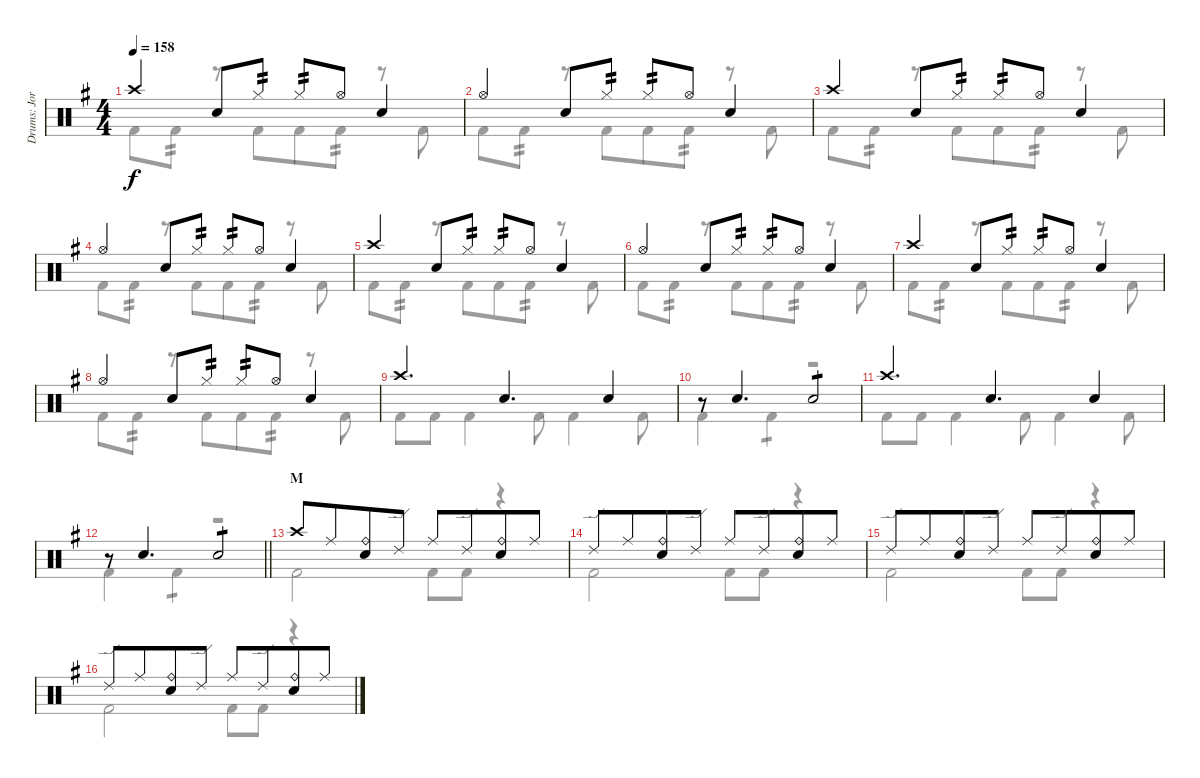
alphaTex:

\track ("Drums: Jorg" "Drums: Jor") {instrument percussion}
\staff {score}
\articulation defaults
\voice
\ts (4 4)
\tempo 158
\clef neutral
\ks g "Crash high (hit)".4{dy f} "Snare (hit) 2".8 "Hi-Hat (closed)".8{tp 2} "Hi-Hat (closed)".8{tp 2} "Hi-Hat (open)".8 "Snare (hit) 2".4
|
"Hi-Hat (open)".4 "Snare (hit) 2".8 "Hi-Hat (closed)".8{tp 2} "Hi-Hat (closed)".8{tp 2} "Hi-Hat (open)".8 "Snare (hit) 2".4 |
"Crash high (hit)".4 "Snare (hit) 2".8 "Hi-Hat (closed)".8{tp 2} "Hi-Hat (closed)".8{tp 2} "Hi-Hat (open)".8 "Snare (hit) 2".4 |
"Hi-Hat (open)".4 "Snare (hit) 2".8 "Hi-Hat (closed)".8{tp 2} "Hi-Hat (closed)".8{tp 2} "Hi-Hat (open)".8 "Snare (hit) 2".4 |
"Crash high (hit)".4 "Snare (hit) 2".8 "Hi-Hat (closed)".8{tp 2} "Hi-Hat (closed)".8{tp 2} "Hi-Hat (open)".8 "Snare (hit) 2".4 |
"Hi-Hat (open)".4 "Snare (hit) 2".8 "Hi-Hat (closed)".8{tp 2} "Hi-Hat (closed)".8{tp 2} "Hi-Hat (open)".8 "Snare (hit) 2".4 |
"Crash high (hit)".4 "Snare (hit) 2".8 "Hi-Hat (closed)".8{tp 2} "Hi-Hat (closed)".8{tp 2} "Hi-Hat (open)".8 "Snare (hit) 2".4 |
"Hi-Hat (open)".4 "Snare (hit) 2".8 "Hi-Hat (closed)".8{tp 2} "Hi-Hat (closed)".8{tp 2} "Hi-Hat (open)".8 "Snare (hit) 2".4 |
"Crash high (hit)".4{d} "Snare (hit) 2".4{d} "Snare (hit) 2".4 |
r.8 "Snare (hit) 2".4{d} "Snare (hit) 2".2{tp 1} |
"Crash high (hit)".4{d} "Snare (hit) 2".4{d} "Snare (hit) 2".4 |
\barLineRight lightlight
r.8 "Snare (hit) 2".4{d} "Snare (hit) 2".2{tp 1} |
\section ("" "M")
"Crash high (hit)".8 "Ride (middle)".8{beam merge} ("Ride (bell)" "Snare (hit) 2").8 "Ride (edge) 2".8 "Ride (middle)".8 "Ride (edge) 2".8{beam merge} ("Ride (bell)" "Snare (hit) 2").8 "Ride (middle)".8 |
"Ride (edge) 2".8 "Ride (middle)".8{beam merge} ("Ride (bell)" "Snare (hit) 2").8 "Ride (edge) 2".8 "Ride (middle)".8 "Ride (edge) 2".8{beam merge} ("Ride (bell)" "Snare (hit) 2").8 "Ride (middle)".8 |
"Ride (edge) 2".8 "Ride (middle)".8{beam merge} ("Ride (bell)" "Snare (hit) 2").8 "Ride (edge) 2".8 "Ride (middle)".8 "Ride (edge) 2".8{beam merge} ("Ride (bell)" "Snare (hit) 2").8 "Ride (middle)".8 |
"Ride (edge) 2".8 "Ride (middle)".8{beam merge} ("Ride (bell)" "Snare (hit) 2").8 "Ride (edge) 2".8 "Ride (middle)".8 "Ride (edge) 2".8{beam merge} ("Ride (bell)" "Snare (hit) 2").8 "Ride (middle)".8
\voice
\clef neutral
\ottava regular
\simile none
\ks g "Kick (hit) 2".8{dy f} "Kick (hit) 2".8{tp 2}
r.8 "Kick (hit) 2".8{beam merge} "Kick (hit) 2".8 "Kick (hit) 2".8{tp 2} r.8 "Kick (hit) 2".8 |
"Kick (hit) 2".8 "Kick (hit) 2".8{tp 2} r.8 "Kick (hit) 2".8{beam merge} "Kick (hit) 2".8 "Kick (hit) 2".8{tp 2} r.8 "Kick (hit) 2".8 |
"Kick (hit) 2".8 "Kick (hit) 2".8{tp 2} r.8 "Kick (hit) 2".8{beam merge} "Kick (hit) 2".8 "Kick (hit) 2".8{tp 2} r.8 "Kick (hit) 2".8 |
"Kick (hit) 2".8 "Kick (hit) 2".8{tp 2} r.8 "Kick (hit) 2".8{beam merge} "Kick (hit) 2".8 "Kick (hit) 2".8{tp 2} r.8 "Kick (hit) 2".8 |
"Kick (hit) 2".8 "Kick (hit) 2".8{tp 2} r.8 "Kick (hit) 2".8{beam merge} "Kick (hit) 2".8 "Kick (hit) 2".8{tp 2} r.8 "Kick (hit) 2".8 |
"Kick (hit) 2".8 "Kick (hit) 2".8{tp 2} r.8 "Kick (hit) 2".8{beam merge} "Kick (hit) 2".8 "Kick (hit) 2".8{tp 2} r.8 "Kick (hit) 2".8 |
"Kick (hit) 2".8 "Kick (hit) 2".8{tp 2} r.8 "Kick (hit) 2".8{beam merge} "Kick (hit) 2".8 "Kick (hit) 2".8{tp 2} r.8 "Kick (hit) 2".8 |
"Kick (hit) 2".8 "Kick (hit) 2".8{tp 2} r.8 "Kick (hit) 2".8{beam merge} "Kick (hit) 2".8 "Kick (hit) 2".8{tp 2} r.8 "Kick (hit) 2".8 |
"Kick (hit) 2".8 "Kick (hit) 2".8 "Kick (hit) 2".4 "Kick (hit) 2".8 "Kick (hit) 2".4 "Kick (hit) 2".8 |
"Kick (hit) 2".4 "Kick (hit) 2".4{tp 1} r.2 |
"Kick (hit) 2".8 "Kick (hit) 2".8 "Kick (hit) 2".4 "Kick (hit) 2".8 "Kick (hit) 2".4 "Kick (hit) 2".8 |
\barLineRight lightlight "Kick (hit) 2".4 "Kick (hit) 2".4{tp 1}
r.2 |
"Kick (hit) 2".2 "Kick (hit) 2".8 "Kick (hit) 2".8 r.4 |
"Kick (hit) 2".2 "Kick (hit) 2".8 "Kick (hit) 2".8 r.4 |
"Kick (hit) 2".2 "Kick (hit) 2".8 "Kick (hit) 2".8 r.4 |
"Kick (hit) 2".2 "Kick (hit) 2".8 "Kick (hit) 2".8 r.4
